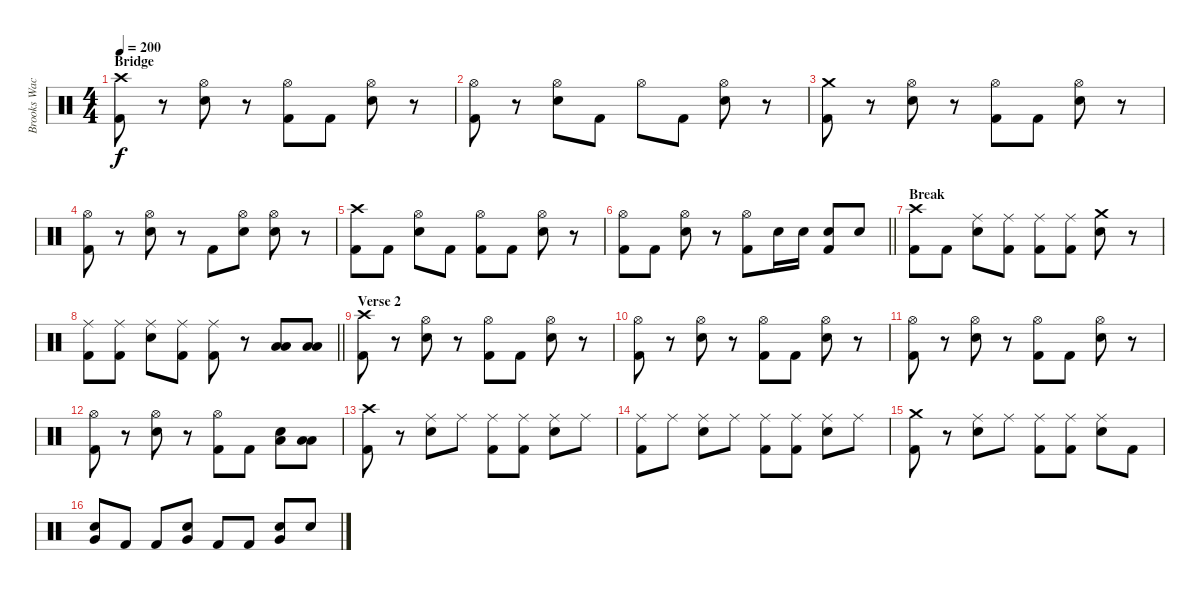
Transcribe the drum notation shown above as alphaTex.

\track ("Brooks Wackerman" "Brooks Wac") {instrument percussion}
\staff {score}
\articulation defaults
\ts (4 4)
\section ("" "Bridge")
\tempo 200
\clef neutral
\ks c
("Crash high (hit)" "Kick (hit) 2").8{dy f} r.8 ("Hi-Hat (open)" "Electric Snare (hit)").8 r.8 ("Hi-Hat (open)" "Kick (hit) 2").8 "Kick (hit) 2".8 ("Hi-Hat (open)" "Electric Snare (hit)").8 r.8 |
("Hi-Hat (open)" "Kick (hit) 2").8 r.8 ("Hi-Hat (open)" "Electric Snare (hit)").8 "Kick (hit) 2".8 "Hi-Hat (open)".8 "Kick (hit) 2".8 ("Hi-Hat (open)" "Electric Snare (hit)").8 r.8 |
("Crash medium (hit)" "Kick (hit) 2").8 r.8 ("Hi-Hat (open)" "Electric Snare (hit)").8 r.8 ("Hi-Hat (open)" "Kick (hit) 2").8 "Kick (hit) 2".8 ("Hi-Hat (open)" "Electric Snare (hit)").8 r.8 |
("Hi-Hat (open)" "Kick (hit) 2").8 r.8 ("Hi-Hat (open)" "Electric Snare (hit)").8 r.8 "Kick (hit) 2".8 ("Hi-Hat (open)" "Electric Snare (hit)").8 ("Hi-Hat (open)" "Electric Snare (hit)").8 r.8 |
("Crash high (hit)" "Kick (hit) 2").8 "Kick (hit) 2".8 ("Hi-Hat (open)" "Electric Snare (hit)").8 "Kick (hit) 2".8 ("Hi-Hat (open)" "Kick (hit) 2").8 "Kick (hit) 2".8 ("Hi-Hat (open)" "Electric Snare (hit)").8 r.8 |
\barLineRight lightlight
("Hi-Hat (open)" "Kick (hit) 2").8 "Kick (hit) 2".8 ("Hi-Hat (open)" "Electric Snare (hit)").8 r.8 ("Hi-Hat (open)" "Kick (hit) 2").8 "Electric Snare (hit)".16 "Electric Snare (hit)".16 ("Electric Snare (hit)" "Kick (hit) 2").8 "Electric Snare (hit)".8 |
\section ("" "Break")
("Crash high (hit)" "Kick (hit) 2").8 "Kick (hit) 2".8 ("Ride (middle)" "Electric Snare (hit)").8 ("Ride (middle)" "Kick (hit) 2").8 ("Ride (middle)" "Kick (hit) 2").8 ("Ride (middle)" "Kick (hit) 2").8 ("Crash medium (hit)" "Electric Snare (hit)").8 r.8 |
\barLineRight lightlight
("Ride (middle)" "Kick (hit) 2").8 ("Ride (middle)" "Kick (hit) 2").8 ("Ride (middle)" "Electric Snare (hit)").8 ("Ride (middle)" "Kick (hit) 2").8 ("Ride (middle)" "Kick (hit) 2").8 r.8 ("Low Floor Tom (hit)" "Low Tom (hit)").8 ("Low Floor Tom (hit)" "Low Tom (hit)").8 |
\section ("" "Verse 2")
("Crash high (hit)" "Kick (hit) 2").8 r.8 ("Hi-Hat (open)" "Electric Snare (hit)").8 r.8 ("Hi-Hat (open)" "Kick (hit) 2").8 "Kick (hit) 2".8 ("Hi-Hat (open)" "Electric Snare (hit)").8 r.8 |
("Hi-Hat (open)" "Kick (hit) 2").8 r.8 ("Hi-Hat (open)" "Electric Snare (hit)").8 r.8 ("Hi-Hat (open)" "Kick (hit) 2").8 "Kick (hit) 2".8 ("Hi-Hat (open)" "Electric Snare (hit)").8 r.8 |
("Hi-Hat (open)" "Kick (hit) 2").8 r.8 ("Hi-Hat (open)" "Electric Snare (hit)").8 r.8 ("Hi-Hat (open)" "Kick (hit) 2").8 "Kick (hit) 2".8 ("Hi-Hat (open)" "Electric Snare (hit)").8 r.8 |
("Hi-Hat (open)" "Kick (hit) 2").8 r.8 ("Hi-Hat (open)" "Electric Snare (hit)").8 r.8 ("Hi-Hat (open)" "Kick (hit) 2").8 "Kick (hit) 2".8 ("Low Tom (hit)" "Electric Snare (hit)").8 ("Low Tom (hit)" "Low Floor Tom (hit)").8 |
("Crash high (hit)" "Kick (hit) 2").8 r.8 ("Ride (middle)" "Electric Snare (hit)").8 "Ride (middle)".8 ("Ride (middle)" "Kick (hit) 2").8 ("Ride (middle)" "Kick (hit) 2").8 ("Ride (middle)" "Electric Snare (hit)").8 "Ride (middle)".8 |
("Ride (middle)" "Kick (hit) 2").8 "Ride (middle)".8 ("Ride (middle)" "Electric Snare (hit)").8 "Ride (middle)".8 ("Ride (middle)" "Kick (hit) 2").8 ("Ride (middle)" "Kick (hit) 2").8 ("Ride (middle)" "Electric Snare (hit)").8 "Ride (middle)".8 |
("Crash medium (hit)" "Kick (hit) 2").8 r.8 ("Ride (middle)" "Electric Snare (hit)").8 "Ride (middle)".8 ("Ride (middle)" "Kick (hit) 2").8 ("Ride (middle)" "Kick (hit) 2").8 ("Ride (middle)" "Electric Snare (hit)").8 "Kick (hit) 2".8 |
("Very Low Tom (hit)" "Electric Snare (hit)").8 "Kick (hit) 2".8 "Kick (hit) 2".8 ("Very Low Tom (hit)" "Electric Snare (hit)").8 "Kick (hit) 2".8 "Kick (hit) 2".8 ("Very Low Tom (hit)" "Electric Snare (hit)").8 "Electric Snare (hit)".8
